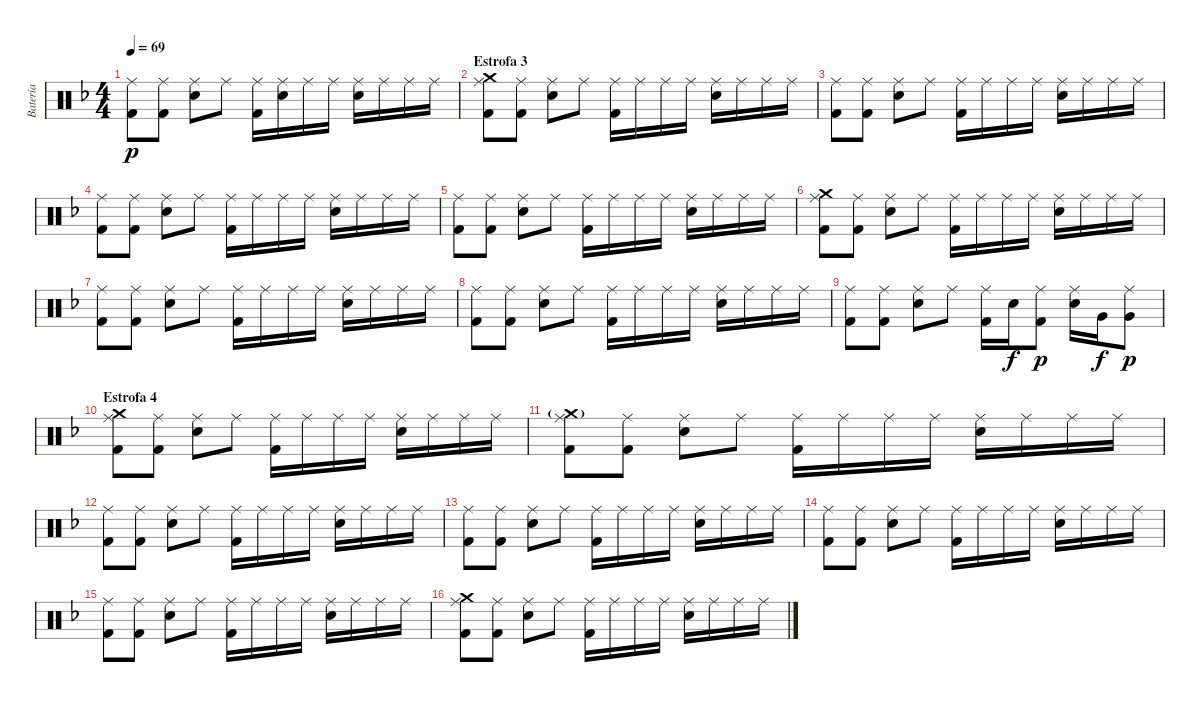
\track ("Batería" "Batería") {instrument percussion}
\staff {score}
\articulation defaults
\ts (4 4)
\tempo 69
\clef neutral
\ks dminor
("Kick (hit) 2" "Ride (middle)").8{dy p} ("Kick (hit) 2" "Ride (middle)").8 ("Electric Snare (hit)" "Ride (middle)").8 "Ride (middle)".8 ("Kick (hit) 2" "Ride (middle)").16 ("Electric Snare (hit)" "Ride (middle)").16 "Ride (middle)".16 "Ride (middle)".16 ("Electric Snare (hit)" "Ride (middle)").16 "Ride (middle)".16 "Ride (middle)".16 "Ride (middle)".16 |
\section ("" "Estrofa 3")
("Crash medium (hit)" "Kick (hit) 2" "Ride (middle)").8 ("Kick (hit) 2" "Ride (middle)").8 ("Electric Snare (hit)" "Ride (middle)").8 "Ride (middle)".8 ("Kick (hit) 2" "Ride (middle)").16 "Ride (middle)".16 "Ride (middle)".16 "Ride (middle)".16 ("Electric Snare (hit)" "Ride (middle)").16 "Ride (middle)".16 "Ride (middle)".16 "Ride (middle)".16 |
("Kick (hit) 2" "Ride (middle)").8 ("Kick (hit) 2" "Ride (middle)").8 ("Electric Snare (hit)" "Ride (middle)").8 "Ride (middle)".8 ("Kick (hit) 2" "Ride (middle)").16 "Ride (middle)".16 "Ride (middle)".16 "Ride (middle)".16 ("Electric Snare (hit)" "Ride (middle)").16 "Ride (middle)".16 "Ride (middle)".16 "Ride (middle)".16 |
("Kick (hit) 2" "Ride (middle)").8 ("Kick (hit) 2" "Ride (middle)").8 ("Electric Snare (hit)" "Ride (middle)").8 "Ride (middle)".8 ("Kick (hit) 2" "Ride (middle)").16 "Ride (middle)".16 "Ride (middle)".16 "Ride (middle)".16 ("Electric Snare (hit)" "Ride (middle)").16 "Ride (middle)".16 "Ride (middle)".16 "Ride (middle)".16 |
("Kick (hit) 2" "Ride (middle)").8 ("Kick (hit) 2" "Ride (middle)").8 ("Electric Snare (hit)" "Ride (middle)").8 "Ride (middle)".8 ("Kick (hit) 2" "Ride (middle)").16 "Ride (middle)".16 "Ride (middle)".16 "Ride (middle)".16 ("Electric Snare (hit)" "Ride (middle)").16 "Ride (middle)".16 "Ride (middle)".16 "Ride (middle)".16 |
("Crash medium (hit)" "Kick (hit) 2" "Ride (middle)").8 ("Kick (hit) 2" "Ride (middle)").8 ("Electric Snare (hit)" "Ride (middle)").8 "Ride (middle)".8 ("Kick (hit) 2" "Ride (middle)").16 "Ride (middle)".16 "Ride (middle)".16 "Ride (middle)".16 ("Electric Snare (hit)" "Ride (middle)").16 "Ride (middle)".16 "Ride (middle)".16 "Ride (middle)".16 |
("Kick (hit) 2" "Ride (middle)").8 ("Kick (hit) 2" "Ride (middle)").8 ("Electric Snare (hit)" "Ride (middle)").8 "Ride (middle)".8 ("Kick (hit) 2" "Ride (middle)").16 "Ride (middle)".16 "Ride (middle)".16 "Ride (middle)".16 ("Electric Snare (hit)" "Ride (middle)").16 "Ride (middle)".16 "Ride (middle)".16 "Ride (middle)".16 |
("Kick (hit) 2" "Ride (middle)").8 ("Kick (hit) 2" "Ride (middle)").8 ("Electric Snare (hit)" "Ride (middle)").8 "Ride (middle)".8 ("Kick (hit) 2" "Ride (middle)").16 "Ride (middle)".16 "Ride (middle)".16 "Ride (middle)".16 ("Electric Snare (hit)" "Ride (middle)").16 "Ride (middle)".16 "Ride (middle)".16 "Ride (middle)".16 |
("Kick (hit) 2" "Ride (middle)").8 ("Kick (hit) 2" "Ride (middle)").8 ("Electric Snare (hit)" "Ride (middle)").8 "Ride (middle)".8 ("Kick (hit) 2" "Ride (middle)").16 "Electric Snare (hit)".16{dy f} ("Kick (hit) 2" "Ride (middle)").8{dy p} ("Electric Snare (hit)" "Ride (middle)").16 "Very Low Tom (hit)".16{dy f} ("Very Low Tom (hit)" "Ride (middle)").8{dy p} |
\section ("" "Estrofa 4")
("Crash medium (hit)" "Kick (hit) 2" "Ride (middle)").8 ("Kick (hit) 2" "Ride (middle)").8 ("Electric Snare (hit)" "Ride (middle)").8 "Ride (middle)".8 ("Kick (hit) 2" "Ride (middle)").16 "Ride (middle)".16 "Ride (middle)".16 "Ride (middle)".16 ("Electric Snare (hit)" "Ride (middle)").16 "Ride (middle)".16 "Ride (middle)".16 "Ride (middle)".16 |
("Crash medium (hit)"{g} "Kick (hit) 2" "Ride (middle)").8 ("Kick (hit) 2" "Ride (middle)").8 ("Electric Snare (hit)" "Ride (middle)").8 "Ride (middle)".8 ("Kick (hit) 2" "Ride (middle)").16 "Ride (middle)".16 "Ride (middle)".16 "Ride (middle)".16 ("Electric Snare (hit)" "Ride (middle)").16 "Ride (middle)".16 "Ride (middle)".16 "Ride (middle)".16 |
("Kick (hit) 2" "Ride (middle)").8 ("Kick (hit) 2" "Ride (middle)").8 ("Electric Snare (hit)" "Ride (middle)").8 "Ride (middle)".8 ("Kick (hit) 2" "Ride (middle)").16 "Ride (middle)".16 "Ride (middle)".16 "Ride (middle)".16 ("Electric Snare (hit)" "Ride (middle)").16 "Ride (middle)".16 "Ride (middle)".16 "Ride (middle)".16 |
("Kick (hit) 2" "Ride (middle)").8 ("Kick (hit) 2" "Ride (middle)").8 ("Electric Snare (hit)" "Ride (middle)").8 "Ride (middle)".8 ("Kick (hit) 2" "Ride (middle)").16 "Ride (middle)".16 "Ride (middle)".16 "Ride (middle)".16 ("Electric Snare (hit)" "Ride (middle)").16 "Ride (middle)".16 "Ride (middle)".16 "Ride (middle)".16 |
("Kick (hit) 2" "Ride (middle)").8 ("Kick (hit) 2" "Ride (middle)").8 ("Electric Snare (hit)" "Ride (middle)").8 "Ride (middle)".8 ("Kick (hit) 2" "Ride (middle)").16 "Ride (middle)".16 "Ride (middle)".16 "Ride (middle)".16 ("Electric Snare (hit)" "Ride (middle)").16 "Ride (middle)".16 "Ride (middle)".16 "Ride (middle)".16 |
("Kick (hit) 2" "Ride (middle)").8 ("Kick (hit) 2" "Ride (middle)").8 ("Electric Snare (hit)" "Ride (middle)").8 "Ride (middle)".8 ("Kick (hit) 2" "Ride (middle)").16 "Ride (middle)".16 "Ride (middle)".16 "Ride (middle)".16 ("Electric Snare (hit)" "Ride (middle)").16 "Ride (middle)".16 "Ride (middle)".16 "Ride (middle)".16 |
("Crash medium (hit)" "Kick (hit) 2" "Ride (middle)").8 ("Kick (hit) 2" "Ride (middle)").8 ("Electric Snare (hit)" "Ride (middle)").8 "Ride (middle)".8 ("Kick (hit) 2" "Ride (middle)").16 "Ride (middle)".16 "Ride (middle)".16 "Ride (middle)".16 ("Electric Snare (hit)" "Ride (middle)").16 "Ride (middle)".16 "Ride (middle)".16 "Ride (middle)".16
